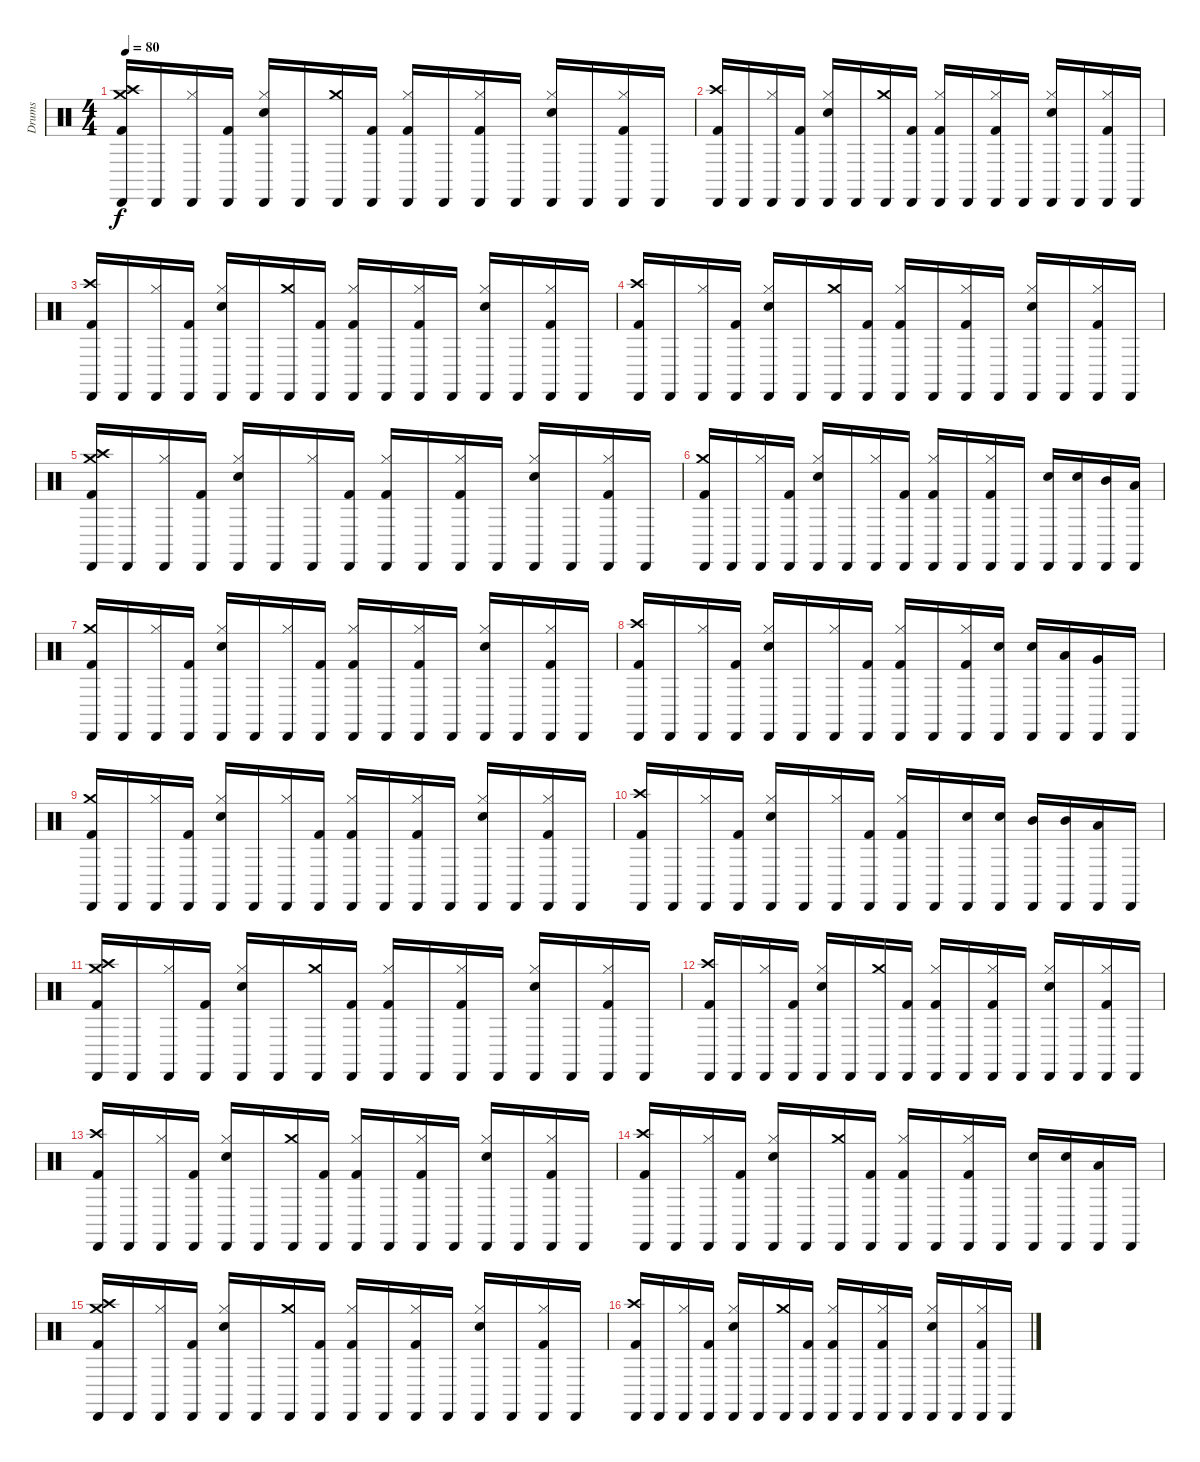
\track ("Drums" "Drums") {instrument percussion}
\staff {score}
\articulation defaults
\ts (4 4)
\tempo 80
\clef neutral
\ks c
("Cabasa (hit)" "Crash high (hit)" "Kick (hit) 2" "Crash medium (hit)").16{dy f} "Cabasa (hit)".16 ("Cabasa (hit)" "Hi-Hat (closed)").16 ("Cabasa (hit)" "Kick (hit) 2").16 ("Cabasa (hit)" "Hi-Hat (closed)" "Electric Snare (hit)").16 "Cabasa (hit)".16 ("Cabasa (hit)" "Crash medium (hit)").16 ("Cabasa (hit)" "Kick (hit) 2").16 ("Cabasa (hit)" "Hi-Hat (closed)" "Kick (hit) 2").16 "Cabasa (hit)".16 ("Cabasa (hit)" "Hi-Hat (closed)" "Kick (hit) 2").16 "Cabasa (hit)".16 ("Cabasa (hit)" "Hi-Hat (closed)" "Electric Snare (hit)").16 "Cabasa (hit)".16 ("Cabasa (hit)" "Hi-Hat (closed)" "Kick (hit) 2").16 "Cabasa (hit)".16 |
("Cabasa (hit)" "Crash high (hit)" "Kick (hit) 2").16 "Cabasa (hit)".16 ("Cabasa (hit)" "Hi-Hat (closed)").16 ("Cabasa (hit)" "Kick (hit) 2").16 ("Cabasa (hit)" "Hi-Hat (closed)" "Electric Snare (hit)").16 "Cabasa (hit)".16 ("Cabasa (hit)" "Crash medium (hit)").16 ("Cabasa (hit)" "Kick (hit) 2").16 ("Cabasa (hit)" "Hi-Hat (closed)" "Kick (hit) 2").16 "Cabasa (hit)".16 ("Cabasa (hit)" "Hi-Hat (closed)" "Kick (hit) 2").16 "Cabasa (hit)".16 ("Cabasa (hit)" "Hi-Hat (closed)" "Electric Snare (hit)").16 "Cabasa (hit)".16 ("Cabasa (hit)" "Hi-Hat (closed)" "Kick (hit) 2").16 "Cabasa (hit)".16 |
("Cabasa (hit)" "Crash high (hit)" "Kick (hit) 2").16 "Cabasa (hit)".16 ("Cabasa (hit)" "Hi-Hat (closed)").16 ("Cabasa (hit)" "Kick (hit) 2").16 ("Cabasa (hit)" "Hi-Hat (closed)" "Electric Snare (hit)").16 "Cabasa (hit)".16 ("Cabasa (hit)" "Crash medium (hit)").16 ("Cabasa (hit)" "Kick (hit) 2").16 ("Cabasa (hit)" "Hi-Hat (closed)" "Kick (hit) 2").16 "Cabasa (hit)".16 ("Cabasa (hit)" "Hi-Hat (closed)" "Kick (hit) 2").16 "Cabasa (hit)".16 ("Cabasa (hit)" "Hi-Hat (closed)" "Electric Snare (hit)").16 "Cabasa (hit)".16 ("Cabasa (hit)" "Hi-Hat (closed)" "Kick (hit) 2").16 "Cabasa (hit)".16 |
("Cabasa (hit)" "Crash high (hit)" "Kick (hit) 2").16 "Cabasa (hit)".16 ("Cabasa (hit)" "Hi-Hat (closed)").16 ("Cabasa (hit)" "Kick (hit) 2").16 ("Cabasa (hit)" "Hi-Hat (closed)" "Electric Snare (hit)").16 "Cabasa (hit)".16 ("Cabasa (hit)" "Crash medium (hit)").16 ("Cabasa (hit)" "Kick (hit) 2").16 ("Cabasa (hit)" "Hi-Hat (closed)" "Kick (hit) 2").16 "Cabasa (hit)".16 ("Cabasa (hit)" "Hi-Hat (closed)" "Kick (hit) 2").16 "Cabasa (hit)".16 ("Cabasa (hit)" "Hi-Hat (closed)" "Electric Snare (hit)").16 "Cabasa (hit)".16 ("Cabasa (hit)" "Hi-Hat (closed)" "Kick (hit) 2").16 "Cabasa (hit)".16 |
("Cabasa (hit)" "Kick (hit) 2" "Crash medium (hit)" "Crash high (hit)").16 "Cabasa (hit)".16 ("Cabasa (hit)" "Hi-Hat (closed)").16 ("Cabasa (hit)" "Kick (hit) 2").16 ("Cabasa (hit)" "Hi-Hat (closed)" "Electric Snare (hit)").16 "Cabasa (hit)".16 ("Cabasa (hit)" "Hi-Hat (closed)").16 ("Cabasa (hit)" "Kick (hit) 2").16 ("Cabasa (hit)" "Hi-Hat (closed)" "Kick (hit) 2").16 "Cabasa (hit)".16 ("Cabasa (hit)" "Hi-Hat (closed)" "Kick (hit) 2").16 "Cabasa (hit)".16 ("Cabasa (hit)" "Hi-Hat (closed)" "Electric Snare (hit)").16 "Cabasa (hit)".16 ("Cabasa (hit)" "Hi-Hat (closed)" "Kick (hit) 2").16 "Cabasa (hit)".16 |
("Cabasa (hit)" "Crash medium (hit)" "Kick (hit) 2").16 "Cabasa (hit)".16 ("Cabasa (hit)" "Hi-Hat (closed)").16 ("Cabasa (hit)" "Kick (hit) 2").16 ("Cabasa (hit)" "Hi-Hat (closed)" "Electric Snare (hit)").16 "Cabasa (hit)".16 ("Cabasa (hit)" "Hi-Hat (closed)").16 ("Cabasa (hit)" "Kick (hit) 2").16 ("Cabasa (hit)" "Hi-Hat (closed)" "Kick (hit) 2").16 "Cabasa (hit)".16 ("Cabasa (hit)" "Hi-Hat (closed)" "Kick (hit) 2").16 "Cabasa (hit)".16 ("Cabasa (hit)" "Electric Snare (hit)").16 ("Cabasa (hit)" "Electric Snare (hit)").16 ("Cabasa (hit)" "Mid Tom (hit)").16 ("Cabasa (hit)" "Low Tom (hit)").16 |
("Cabasa (hit)" "Crash medium (hit)" "Kick (hit) 2").16 "Cabasa (hit)".16 ("Cabasa (hit)" "Hi-Hat (closed)").16 ("Cabasa (hit)" "Kick (hit) 2").16 ("Cabasa (hit)" "Hi-Hat (closed)" "Electric Snare (hit)").16 "Cabasa (hit)".16 ("Cabasa (hit)" "Hi-Hat (closed)").16 ("Cabasa (hit)" "Kick (hit) 2").16 ("Cabasa (hit)" "Hi-Hat (closed)" "Kick (hit) 2").16 "Cabasa (hit)".16 ("Cabasa (hit)" "Hi-Hat (closed)" "Kick (hit) 2").16 "Cabasa (hit)".16 ("Cabasa (hit)" "Hi-Hat (closed)" "Electric Snare (hit)").16 "Cabasa (hit)".16 ("Cabasa (hit)" "Hi-Hat (closed)" "Kick (hit) 2").16 "Cabasa (hit)".16 |
("Cabasa (hit)" "Crash high (hit)" "Kick (hit) 2").16 "Cabasa (hit)".16 ("Cabasa (hit)" "Hi-Hat (closed)").16 ("Cabasa (hit)" "Kick (hit) 2").16 ("Cabasa (hit)" "Hi-Hat (closed)" "Electric Snare (hit)").16 "Cabasa (hit)".16 ("Cabasa (hit)" "Hi-Hat (closed)").16 ("Cabasa (hit)" "Kick (hit) 2").16 ("Cabasa (hit)" "Hi-Hat (closed)" "Kick (hit) 2").16 "Cabasa (hit)".16 ("Cabasa (hit)" "Hi-Hat (closed)" "Kick (hit) 2").16 ("Cabasa (hit)" "Electric Snare (hit)").16 ("Cabasa (hit)" "Electric Snare (hit)").16 ("Cabasa (hit)" "Low Tom (hit)").16 ("Cabasa (hit)" "Very Low Tom (hit)").16 "Cabasa (hit)".16 |
("Cabasa (hit)" "Crash medium (hit)" "Kick (hit) 2").16 "Cabasa (hit)".16 ("Cabasa (hit)" "Hi-Hat (closed)").16 ("Cabasa (hit)" "Kick (hit) 2").16 ("Cabasa (hit)" "Hi-Hat (closed)" "Electric Snare (hit)").16 "Cabasa (hit)".16 ("Cabasa (hit)" "Hi-Hat (closed)").16 ("Cabasa (hit)" "Kick (hit) 2").16 ("Cabasa (hit)" "Hi-Hat (closed)" "Kick (hit) 2").16 "Cabasa (hit)".16 ("Cabasa (hit)" "Hi-Hat (closed)" "Kick (hit) 2").16 "Cabasa (hit)".16 ("Cabasa (hit)" "Hi-Hat (closed)" "Electric Snare (hit)").16 "Cabasa (hit)".16 ("Cabasa (hit)" "Hi-Hat (closed)" "Kick (hit) 2").16 "Cabasa (hit)".16 |
("Cabasa (hit)" "Crash high (hit)" "Kick (hit) 2").16 "Cabasa (hit)".16 ("Cabasa (hit)" "Hi-Hat (closed)").16 ("Cabasa (hit)" "Kick (hit) 2").16 ("Cabasa (hit)" "Hi-Hat (closed)" "Electric Snare (hit)").16 "Cabasa (hit)".16 ("Cabasa (hit)" "Hi-Hat (closed)").16 ("Cabasa (hit)" "Kick (hit) 2").16 ("Cabasa (hit)" "Hi-Hat (closed)" "Kick (hit) 2").16 "Cabasa (hit)".16 ("Cabasa (hit)" "Electric Snare (hit)").16 ("Cabasa (hit)" "Electric Snare (hit)").16 ("Cabasa (hit)" "Mid Tom (hit)").16 ("Cabasa (hit)" "Mid Tom (hit)").16 ("Cabasa (hit)" "Low Tom (hit)").16 "Cabasa (hit)".16 |
("Cabasa (hit)" "Crash high (hit)" "Kick (hit) 2" "Crash medium (hit)").16 "Cabasa (hit)".16 ("Cabasa (hit)" "Hi-Hat (closed)").16 ("Cabasa (hit)" "Kick (hit) 2").16 ("Cabasa (hit)" "Hi-Hat (closed)" "Electric Snare (hit)").16 "Cabasa (hit)".16 ("Cabasa (hit)" "Crash medium (hit)").16 ("Cabasa (hit)" "Kick (hit) 2").16 ("Cabasa (hit)" "Hi-Hat (closed)" "Kick (hit) 2").16 "Cabasa (hit)".16 ("Cabasa (hit)" "Hi-Hat (closed)" "Kick (hit) 2").16 "Cabasa (hit)".16 ("Cabasa (hit)" "Hi-Hat (closed)" "Electric Snare (hit)").16 "Cabasa (hit)".16 ("Cabasa (hit)" "Hi-Hat (closed)" "Kick (hit) 2").16 "Cabasa (hit)".16 |
("Cabasa (hit)" "Crash high (hit)" "Kick (hit) 2").16 "Cabasa (hit)".16 ("Cabasa (hit)" "Hi-Hat (closed)").16 ("Cabasa (hit)" "Kick (hit) 2").16 ("Cabasa (hit)" "Hi-Hat (closed)" "Electric Snare (hit)").16 "Cabasa (hit)".16 ("Cabasa (hit)" "Crash medium (hit)").16 ("Cabasa (hit)" "Kick (hit) 2").16 ("Cabasa (hit)" "Hi-Hat (closed)" "Kick (hit) 2").16 "Cabasa (hit)".16 ("Cabasa (hit)" "Hi-Hat (closed)" "Kick (hit) 2").16 "Cabasa (hit)".16 ("Cabasa (hit)" "Hi-Hat (closed)" "Electric Snare (hit)").16 "Cabasa (hit)".16 ("Cabasa (hit)" "Hi-Hat (closed)" "Kick (hit) 2").16 "Cabasa (hit)".16 |
("Cabasa (hit)" "Crash high (hit)" "Kick (hit) 2").16 "Cabasa (hit)".16 ("Cabasa (hit)" "Hi-Hat (closed)").16 ("Cabasa (hit)" "Kick (hit) 2").16 ("Cabasa (hit)" "Hi-Hat (closed)" "Electric Snare (hit)").16 "Cabasa (hit)".16 ("Cabasa (hit)" "Crash medium (hit)").16 ("Cabasa (hit)" "Kick (hit) 2").16 ("Cabasa (hit)" "Hi-Hat (closed)" "Kick (hit) 2").16 "Cabasa (hit)".16 ("Cabasa (hit)" "Hi-Hat (closed)" "Kick (hit) 2").16 "Cabasa (hit)".16 ("Cabasa (hit)" "Hi-Hat (closed)" "Electric Snare (hit)").16 "Cabasa (hit)".16 ("Cabasa (hit)" "Hi-Hat (closed)" "Kick (hit) 2").16 "Cabasa (hit)".16 |
("Cabasa (hit)" "Crash high (hit)" "Kick (hit) 2").16 "Cabasa (hit)".16 ("Cabasa (hit)" "Hi-Hat (closed)").16 ("Cabasa (hit)" "Kick (hit) 2").16 ("Cabasa (hit)" "Hi-Hat (closed)" "Electric Snare (hit)").16 "Cabasa (hit)".16 ("Cabasa (hit)" "Crash medium (hit)").16 ("Cabasa (hit)" "Kick (hit) 2").16 ("Cabasa (hit)" "Hi-Hat (closed)" "Kick (hit) 2").16 "Cabasa (hit)".16 ("Cabasa (hit)" "Hi-Hat (closed)" "Kick (hit) 2").16 "Cabasa (hit)".16 ("Cabasa (hit)" "Electric Snare (hit)").16 ("Cabasa (hit)" "Electric Snare (hit)").16 ("Cabasa (hit)" "Low Tom (hit)").16 "Cabasa (hit)".16 |
("Cabasa (hit)" "Crash high (hit)" "Kick (hit) 2" "Crash medium (hit)").16 "Cabasa (hit)".16 ("Cabasa (hit)" "Hi-Hat (closed)").16 ("Cabasa (hit)" "Kick (hit) 2").16 ("Cabasa (hit)" "Hi-Hat (closed)" "Electric Snare (hit)").16 "Cabasa (hit)".16 ("Cabasa (hit)" "Crash medium (hit)").16 ("Cabasa (hit)" "Kick (hit) 2").16 ("Cabasa (hit)" "Hi-Hat (closed)" "Kick (hit) 2").16 "Cabasa (hit)".16 ("Cabasa (hit)" "Hi-Hat (closed)" "Kick (hit) 2").16 "Cabasa (hit)".16 ("Cabasa (hit)" "Hi-Hat (closed)" "Electric Snare (hit)").16 "Cabasa (hit)".16 ("Cabasa (hit)" "Hi-Hat (closed)" "Kick (hit) 2").16 "Cabasa (hit)".16 |
("Cabasa (hit)" "Crash high (hit)" "Kick (hit) 2").16 "Cabasa (hit)".16 ("Cabasa (hit)" "Hi-Hat (closed)").16 ("Cabasa (hit)" "Kick (hit) 2").16 ("Cabasa (hit)" "Hi-Hat (closed)" "Electric Snare (hit)").16 "Cabasa (hit)".16 ("Cabasa (hit)" "Crash medium (hit)").16 ("Cabasa (hit)" "Kick (hit) 2").16 ("Cabasa (hit)" "Hi-Hat (closed)" "Kick (hit) 2").16 "Cabasa (hit)".16 ("Cabasa (hit)" "Hi-Hat (closed)" "Kick (hit) 2").16 "Cabasa (hit)".16 ("Cabasa (hit)" "Hi-Hat (closed)" "Electric Snare (hit)").16 "Cabasa (hit)".16 ("Cabasa (hit)" "Hi-Hat (closed)" "Kick (hit) 2").16 "Cabasa (hit)".16
